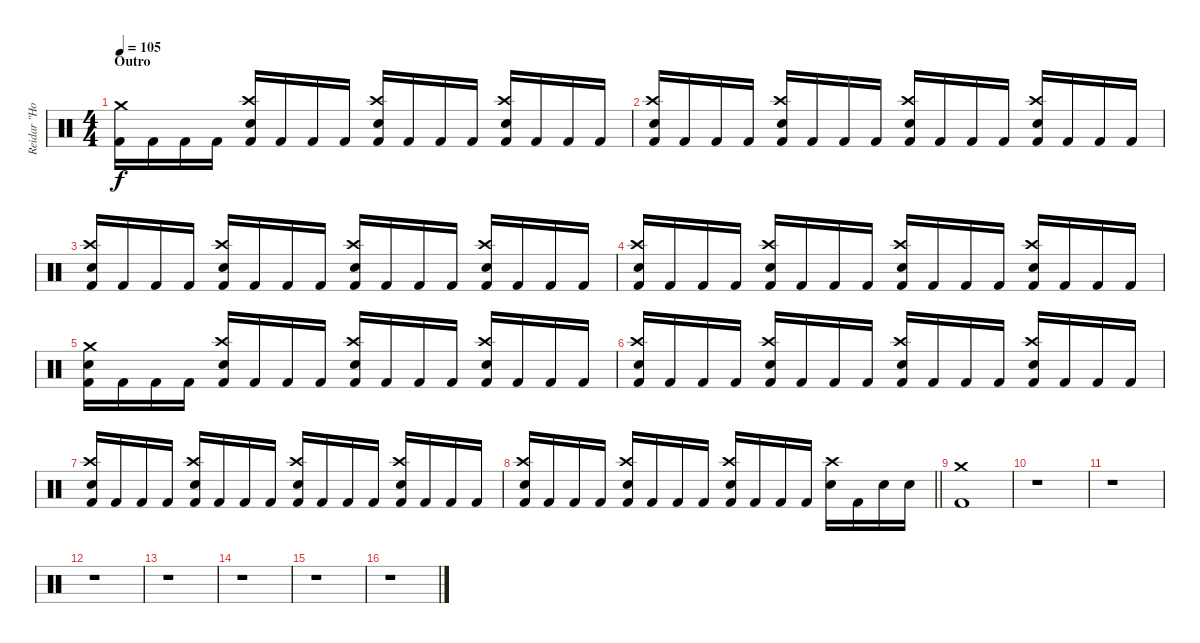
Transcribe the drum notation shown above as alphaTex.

\track ("Reidar \"Horgh\" Horghagen " "Reidar \"Ho") {instrument percussion}
\staff {score}
\articulation defaults
\ts (4 4)
\section ("" "Outro")
\tempo 105
\clef neutral
\ks c
("Crash medium (hit)" "Kick (hit) 2").16{dy f} "Kick (hit) 2".16 "Kick (hit) 2".16 "Kick (hit) 2".16 ("Crash high (hit)" "Snare (hit) 2" "Kick (hit) 2").16 "Kick (hit) 2".16 "Kick (hit) 2".16 "Kick (hit) 2".16 ("Crash high (hit)" "Snare (hit) 2" "Kick (hit) 2").16 "Kick (hit) 2".16 "Kick (hit) 2".16 "Kick (hit) 2".16 ("Crash high (hit)" "Snare (hit) 2" "Kick (hit) 2").16 "Kick (hit) 2".16 "Kick (hit) 2".16 "Kick (hit) 2".16 |
("Crash high (hit)" "Snare (hit) 2" "Kick (hit) 2").16 "Kick (hit) 2".16 "Kick (hit) 2".16 "Kick (hit) 2".16 ("Crash high (hit)" "Snare (hit) 2" "Kick (hit) 2").16 "Kick (hit) 2".16 "Kick (hit) 2".16 "Kick (hit) 2".16 ("Crash high (hit)" "Snare (hit) 2" "Kick (hit) 2").16 "Kick (hit) 2".16 "Kick (hit) 2".16 "Kick (hit) 2".16 ("Crash high (hit)" "Snare (hit) 2" "Kick (hit) 2").16 "Kick (hit) 2".16 "Kick (hit) 2".16 "Kick (hit) 2".16 |
("Crash high (hit)" "Snare (hit) 2" "Kick (hit) 2").16 "Kick (hit) 2".16 "Kick (hit) 2".16 "Kick (hit) 2".16 ("Crash high (hit)" "Snare (hit) 2" "Kick (hit) 2").16 "Kick (hit) 2".16 "Kick (hit) 2".16 "Kick (hit) 2".16 ("Crash high (hit)" "Snare (hit) 2" "Kick (hit) 2").16 "Kick (hit) 2".16 "Kick (hit) 2".16 "Kick (hit) 2".16 ("Crash high (hit)" "Snare (hit) 2" "Kick (hit) 2").16 "Kick (hit) 2".16 "Kick (hit) 2".16 "Kick (hit) 2".16 |
("Crash high (hit)" "Snare (hit) 2" "Kick (hit) 2").16 "Kick (hit) 2".16 "Kick (hit) 2".16 "Kick (hit) 2".16 ("Crash high (hit)" "Snare (hit) 2" "Kick (hit) 2").16 "Kick (hit) 2".16 "Kick (hit) 2".16 "Kick (hit) 2".16 ("Crash high (hit)" "Snare (hit) 2" "Kick (hit) 2").16 "Kick (hit) 2".16 "Kick (hit) 2".16 "Kick (hit) 2".16 ("Crash high (hit)" "Snare (hit) 2" "Kick (hit) 2").16 "Kick (hit) 2".16 "Kick (hit) 2".16 "Kick (hit) 2".16 |
("Crash medium (hit)" "Snare (hit) 2" "Kick (hit) 2").16 "Kick (hit) 2".16 "Kick (hit) 2".16 "Kick (hit) 2".16 ("Crash high (hit)" "Snare (hit) 2" "Kick (hit) 2").16 "Kick (hit) 2".16 "Kick (hit) 2".16 "Kick (hit) 2".16 ("Crash high (hit)" "Snare (hit) 2" "Kick (hit) 2").16 "Kick (hit) 2".16 "Kick (hit) 2".16 "Kick (hit) 2".16 ("Crash high (hit)" "Snare (hit) 2" "Kick (hit) 2").16 "Kick (hit) 2".16 "Kick (hit) 2".16 "Kick (hit) 2".16 |
("Crash high (hit)" "Snare (hit) 2" "Kick (hit) 2").16 "Kick (hit) 2".16 "Kick (hit) 2".16 "Kick (hit) 2".16 ("Crash high (hit)" "Snare (hit) 2" "Kick (hit) 2").16 "Kick (hit) 2".16 "Kick (hit) 2".16 "Kick (hit) 2".16 ("Crash high (hit)" "Snare (hit) 2" "Kick (hit) 2").16 "Kick (hit) 2".16 "Kick (hit) 2".16 "Kick (hit) 2".16 ("Crash high (hit)" "Snare (hit) 2" "Kick (hit) 2").16 "Kick (hit) 2".16 "Kick (hit) 2".16 "Kick (hit) 2".16 |
("Crash high (hit)" "Snare (hit) 2" "Kick (hit) 2").16 "Kick (hit) 2".16 "Kick (hit) 2".16 "Kick (hit) 2".16 ("Crash high (hit)" "Snare (hit) 2" "Kick (hit) 2").16 "Kick (hit) 2".16 "Kick (hit) 2".16 "Kick (hit) 2".16 ("Crash high (hit)" "Snare (hit) 2" "Kick (hit) 2").16 "Kick (hit) 2".16 "Kick (hit) 2".16 "Kick (hit) 2".16 ("Crash high (hit)" "Snare (hit) 2" "Kick (hit) 2").16 "Kick (hit) 2".16 "Kick (hit) 2".16 "Kick (hit) 2".16 |
\barLineRight lightlight
("Crash high (hit)" "Snare (hit) 2" "Kick (hit) 2").16 "Kick (hit) 2".16 "Kick (hit) 2".16 "Kick (hit) 2".16 ("Crash high (hit)" "Snare (hit) 2" "Kick (hit) 2").16 "Kick (hit) 2".16 "Kick (hit) 2".16 "Kick (hit) 2".16 ("Crash high (hit)" "Snare (hit) 2" "Kick (hit) 2").16 "Kick (hit) 2".16 "Kick (hit) 2".16 "Kick (hit) 2".16 ("Crash high (hit)" "Snare (hit) 2").16 "Kick (hit) 2".16 "Snare (hit) 2".16 "Snare (hit) 2".16 |
("Crash medium (hit)" "Kick (hit) 2").1 |
r.1 |
r.1 |
r.1 |
r.1 |
r.1 |
r.1 |
r.1
